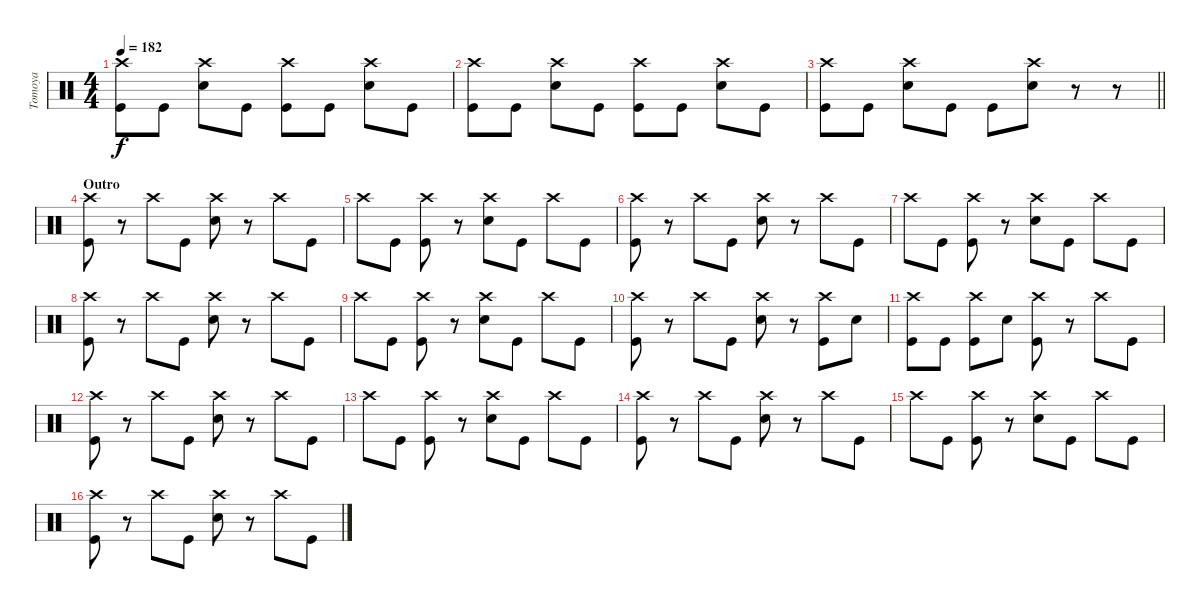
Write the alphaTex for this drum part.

\track ("Tomoya" "Tomoya") {instrument percussion}
\staff {score}
\articulation defaults
\ts (4 4)
\tempo 182
\clef neutral
\ks c
("Crash high (hit)" "Kick (hit)").8{dy f} "Kick (hit)".8 ("Crash high (hit)" "Snare (hit) 2").8 "Kick (hit)".8 ("Crash high (hit)" "Kick (hit)").8 "Kick (hit)".8 ("Crash high (hit)" "Snare (hit) 2").8 "Kick (hit)".8 |
("Crash high (hit)" "Kick (hit)").8 "Kick (hit)".8 ("Crash high (hit)" "Snare (hit) 2").8 "Kick (hit)".8 ("Crash high (hit)" "Kick (hit)").8 "Kick (hit)".8 ("Crash high (hit)" "Snare (hit) 2").8 "Kick (hit)".8 |
\barLineRight lightlight
("Crash high (hit)" "Kick (hit)").8 "Kick (hit)".8 ("Crash high (hit)" "Snare (hit) 2").8 "Kick (hit)".8 "Kick (hit)".8 ("Crash high (hit)" "Snare (hit) 2").8 r.8 r.8 |
\section ("" "Outro")
("Crash high (hit)" "Kick (hit)").8 r.8 "Crash high (hit)".8 "Kick (hit)".8 ("Crash high (hit)" "Snare (hit) 2").8 r.8 "Crash high (hit)".8 "Kick (hit)".8 |
"Crash high (hit)".8 "Kick (hit)".8 ("Crash high (hit)" "Kick (hit)").8 r.8 ("Crash high (hit)" "Snare (hit) 2").8 "Kick (hit)".8 "Crash high (hit)".8 "Kick (hit)".8 |
("Crash high (hit)" "Kick (hit)").8 r.8 "Crash high (hit)".8 "Kick (hit)".8 ("Crash high (hit)" "Snare (hit) 2").8 r.8 "Crash high (hit)".8 "Kick (hit)".8 |
"Crash high (hit)".8 "Kick (hit)".8 ("Crash high (hit)" "Kick (hit)").8 r.8 ("Crash high (hit)" "Snare (hit) 2").8 "Kick (hit)".8 "Crash high (hit)".8 "Kick (hit)".8 |
("Crash high (hit)" "Kick (hit)").8 r.8 "Crash high (hit)".8 "Kick (hit)".8 ("Crash high (hit)" "Snare (hit) 2").8 r.8 "Crash high (hit)".8 "Kick (hit)".8 |
"Crash high (hit)".8 "Kick (hit)".8 ("Crash high (hit)" "Kick (hit)").8 r.8 ("Crash high (hit)" "Snare (hit) 2").8 "Kick (hit)".8 "Crash high (hit)".8 "Kick (hit)".8 |
("Crash high (hit)" "Kick (hit)").8 r.8 "Crash high (hit)".8 "Kick (hit)".8 ("Crash high (hit)" "Snare (hit) 2").8 r.8 ("Crash high (hit)" "Kick (hit)").8 "Snare (hit) 2".8 |
("Crash high (hit)" "Kick (hit)").8 "Kick (hit)".8 ("Crash high (hit)" "Kick (hit)").8 "Snare (hit) 2".8 ("Crash high (hit)" "Kick (hit)").8 r.8 "Crash high (hit)".8 "Kick (hit)".8 |
("Crash high (hit)" "Kick (hit)").8 r.8 "Crash high (hit)".8 "Kick (hit)".8 ("Crash high (hit)" "Snare (hit) 2").8 r.8 "Crash high (hit)".8 "Kick (hit)".8 |
"Crash high (hit)".8 "Kick (hit)".8 ("Crash high (hit)" "Kick (hit)").8 r.8 ("Crash high (hit)" "Snare (hit) 2").8 "Kick (hit)".8 "Crash high (hit)".8 "Kick (hit)".8 |
("Crash high (hit)" "Kick (hit)").8 r.8 "Crash high (hit)".8 "Kick (hit)".8 ("Crash high (hit)" "Snare (hit) 2").8 r.8 "Crash high (hit)".8 "Kick (hit)".8 |
"Crash high (hit)".8 "Kick (hit)".8 ("Crash high (hit)" "Kick (hit)").8 r.8 ("Crash high (hit)" "Snare (hit) 2").8 "Kick (hit)".8 "Crash high (hit)".8 "Kick (hit)".8 |
("Crash high (hit)" "Kick (hit)").8 r.8 "Crash high (hit)".8 "Kick (hit)".8 ("Crash high (hit)" "Snare (hit) 2").8 r.8 "Crash high (hit)".8 "Kick (hit)".8
